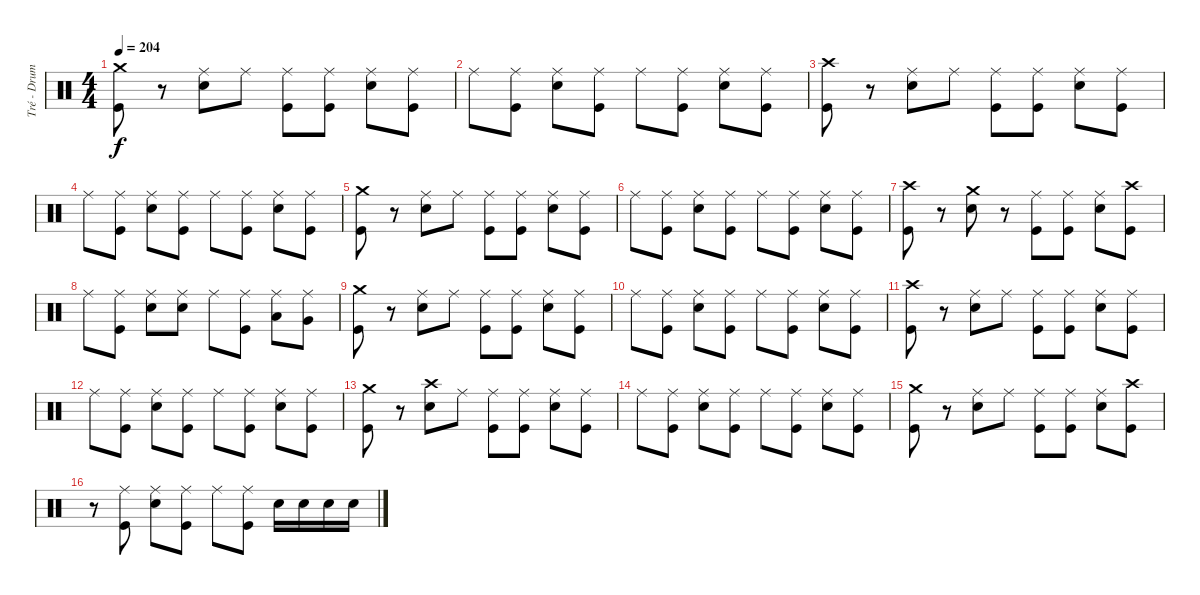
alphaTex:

\track ("Tré - Drums" "Tré - Drum") {instrument percussion}
\staff {score}
\articulation defaults
\ts (4 4)
\tempo 204
\clef neutral
\ks c
("Crash medium (hit)" "Kick (hit)").8{dy f} r.8 ("Ride (middle)" "Electric Snare (hit)").8 "Ride (middle)".8 ("Ride (middle)" "Kick (hit)").8 ("Ride (middle)" "Kick (hit)").8 ("Ride (middle)" "Electric Snare (hit)").8 ("Ride (middle)" "Kick (hit)").8 |
"Ride (middle)".8 ("Ride (middle)" "Kick (hit)").8 ("Ride (middle)" "Electric Snare (hit)").8 ("Ride (middle)" "Kick (hit)").8 "Ride (middle)".8 ("Ride (middle)" "Kick (hit)").8 ("Ride (middle)" "Electric Snare (hit)").8 ("Ride (middle)" "Kick (hit)").8 |
("Crash high (hit)" "Kick (hit)").8 r.8 ("Ride (middle)" "Electric Snare (hit)").8 "Ride (middle)".8 ("Ride (middle)" "Kick (hit)").8 ("Ride (middle)" "Kick (hit)").8 ("Ride (middle)" "Electric Snare (hit)").8 ("Ride (middle)" "Kick (hit)").8 |
"Ride (middle)".8 ("Ride (middle)" "Kick (hit)").8 ("Ride (middle)" "Electric Snare (hit)").8 ("Ride (middle)" "Kick (hit)").8 "Ride (middle)".8 ("Ride (middle)" "Kick (hit)").8 ("Ride (middle)" "Electric Snare (hit)").8 ("Ride (middle)" "Kick (hit)").8 |
("Crash medium (hit)" "Kick (hit)").8 r.8 ("Ride (middle)" "Electric Snare (hit)").8 "Ride (middle)".8 ("Ride (middle)" "Kick (hit)").8 ("Ride (middle)" "Kick (hit)").8 ("Ride (middle)" "Electric Snare (hit)").8 ("Ride (middle)" "Kick (hit)").8 |
"Ride (middle)".8 ("Ride (middle)" "Kick (hit)").8 ("Ride (middle)" "Electric Snare (hit)").8 ("Ride (middle)" "Kick (hit)").8 "Ride (middle)".8 ("Ride (middle)" "Kick (hit)").8 ("Ride (middle)" "Electric Snare (hit)").8 ("Ride (middle)" "Kick (hit)").8 |
("Crash high (hit)" "Kick (hit)").8 r.8 ("Crash medium (hit)" "Electric Snare (hit)").8 r.8 ("Ride (middle)" "Kick (hit)").8 ("Ride (middle)" "Kick (hit)").8 ("Ride (middle)" "Electric Snare (hit)").8 ("Crash high (hit)" "Kick (hit)").8 |
"Ride (middle)".8 ("Ride (middle)" "Kick (hit)").8 ("Ride (middle)" "Electric Snare (hit)").8 ("Ride (middle)" "Electric Snare (hit)").8 "Ride (middle)".8 ("Ride (middle)" "Kick (hit)").8 ("Ride (middle)" "Low Tom (hit)").8 ("Ride (middle)" "Very Low Tom (hit)").8 |
("Crash medium (hit)" "Kick (hit)").8 r.8 ("Ride (middle)" "Electric Snare (hit)").8 "Ride (middle)".8 ("Ride (middle)" "Kick (hit)").8 ("Ride (middle)" "Kick (hit)").8 ("Ride (middle)" "Electric Snare (hit)").8 ("Ride (middle)" "Kick (hit)").8 |
"Ride (middle)".8 ("Ride (middle)" "Kick (hit)").8 ("Ride (middle)" "Electric Snare (hit)").8 ("Ride (middle)" "Kick (hit)").8 "Ride (middle)".8 ("Ride (middle)" "Kick (hit)").8 ("Ride (middle)" "Electric Snare (hit)").8 ("Ride (middle)" "Kick (hit)").8 |
("Crash high (hit)" "Kick (hit)").8 r.8 ("Ride (middle)" "Electric Snare (hit)").8 "Ride (middle)".8 ("Ride (middle)" "Kick (hit)").8 ("Ride (middle)" "Kick (hit)").8 ("Ride (middle)" "Electric Snare (hit)").8 ("Ride (middle)" "Kick (hit)").8 |
"Ride (middle)".8 ("Ride (middle)" "Kick (hit)").8 ("Ride (middle)" "Electric Snare (hit)").8 ("Ride (middle)" "Kick (hit)").8 "Ride (middle)".8 ("Ride (middle)" "Kick (hit)").8 ("Ride (middle)" "Electric Snare (hit)").8 ("Ride (middle)" "Kick (hit)").8 |
("Crash medium (hit)" "Kick (hit)").8 r.8 ("Crash high (hit)" "Electric Snare (hit)").8 "Ride (middle)".8 ("Ride (middle)" "Kick (hit)").8 ("Ride (middle)" "Kick (hit)").8 ("Ride (middle)" "Electric Snare (hit)").8 ("Ride (middle)" "Kick (hit)").8 |
"Ride (middle)".8 ("Ride (middle)" "Kick (hit)").8 ("Ride (middle)" "Electric Snare (hit)").8 ("Ride (middle)" "Kick (hit)").8 "Ride (middle)".8 ("Ride (middle)" "Kick (hit)").8 ("Ride (middle)" "Electric Snare (hit)").8 ("Ride (middle)" "Kick (hit)").8 |
("Crash medium (hit)" "Kick (hit)").8 r.8 ("Ride (middle)" "Electric Snare (hit)").8 "Ride (middle)".8 ("Ride (middle)" "Kick (hit)").8 ("Ride (middle)" "Kick (hit)").8 ("Ride (middle)" "Electric Snare (hit)").8 ("Crash high (hit)" "Kick (hit)").8 |
r.8 ("Ride (middle)" "Kick (hit)").8 ("Ride (middle)" "Electric Snare (hit)").8 ("Ride (middle)" "Kick (hit)").8 "Ride (middle)".8 ("Ride (middle)" "Kick (hit)").8 "Electric Snare (hit)".16 "Electric Snare (hit)".16 "Electric Snare (hit)".16 "Electric Snare (hit)".16
